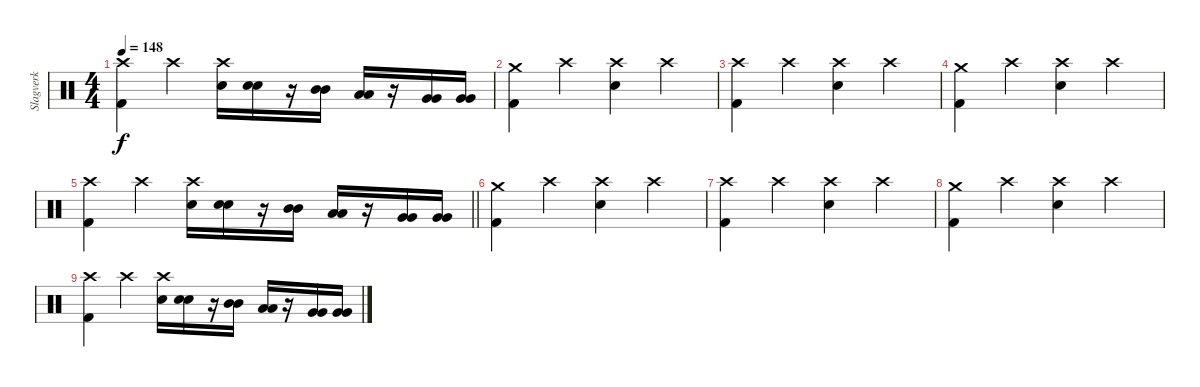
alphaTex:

\track ("Slagverk" "Slagverk") {instrument percussion}
\staff {score}
\articulation defaults
\ts (4 4)
\tempo 148
\clef neutral
\ks c
("Crash high (hit)" "Kick (hit) 2").4{dy f} "Crash high (hit)".4 ("Crash high (hit)" "Snare (hit) 2").16 ("Snare (hit) 2" "Snare (hit) 2").16 r.16 ("Mid Tom (hit)" "Mid Tom (hit)").16 ("Low Tom (hit)" "Low Tom (hit)").16 r.16 ("Very Low Tom (hit)" "Very Low Tom (hit)").16 ("Very Low Tom (hit)" "Very Low Tom (hit)").16 |
("Crash medium (hit)" "Kick (hit) 2").4 "Crash high (hit)".4 ("Crash high (hit)" "Snare (hit) 2").4 "Crash high (hit)".4 |
("Crash high (hit)" "Kick (hit) 2").4 "Crash high (hit)".4 ("Crash high (hit)" "Snare (hit) 2").4 "Crash high (hit)".4 |
("Crash medium (hit)" "Kick (hit) 2").4 "Crash high (hit)".4 ("Crash high (hit)" "Snare (hit) 2").4 "Crash high (hit)".4 |
\barLineRight lightlight
("Crash high (hit)" "Kick (hit) 2").4 "Crash high (hit)".4 ("Crash high (hit)" "Snare (hit) 2").16 ("Snare (hit) 2" "Snare (hit) 2").16 r.16 ("Mid Tom (hit)" "Mid Tom (hit)").16 ("Low Tom (hit)" "Low Tom (hit)").16 r.16 ("Very Low Tom (hit)" "Very Low Tom (hit)").16 ("Very Low Tom (hit)" "Very Low Tom (hit)").16 |
("Crash medium (hit)" "Kick (hit) 2").4 "Crash high (hit)".4 ("Crash high (hit)" "Snare (hit) 2").4 "Crash high (hit)".4 |
("Crash high (hit)" "Kick (hit) 2").4 "Crash high (hit)".4 ("Crash high (hit)" "Snare (hit) 2").4 "Crash high (hit)".4 |
("Crash medium (hit)" "Kick (hit) 2").4 "Crash high (hit)".4 ("Crash high (hit)" "Snare (hit) 2").4 "Crash high (hit)".4 |
("Crash high (hit)" "Kick (hit) 2").4 "Crash high (hit)".4 ("Crash high (hit)" "Snare (hit) 2").16 ("Snare (hit) 2" "Snare (hit) 2").16 r.16 ("Mid Tom (hit)" "Mid Tom (hit)").16 ("Low Tom (hit)" "Low Tom (hit)").16 r.16 ("Very Low Tom (hit)" "Very Low Tom (hit)").16 ("Very Low Tom (hit)" "Very Low Tom (hit)").16
